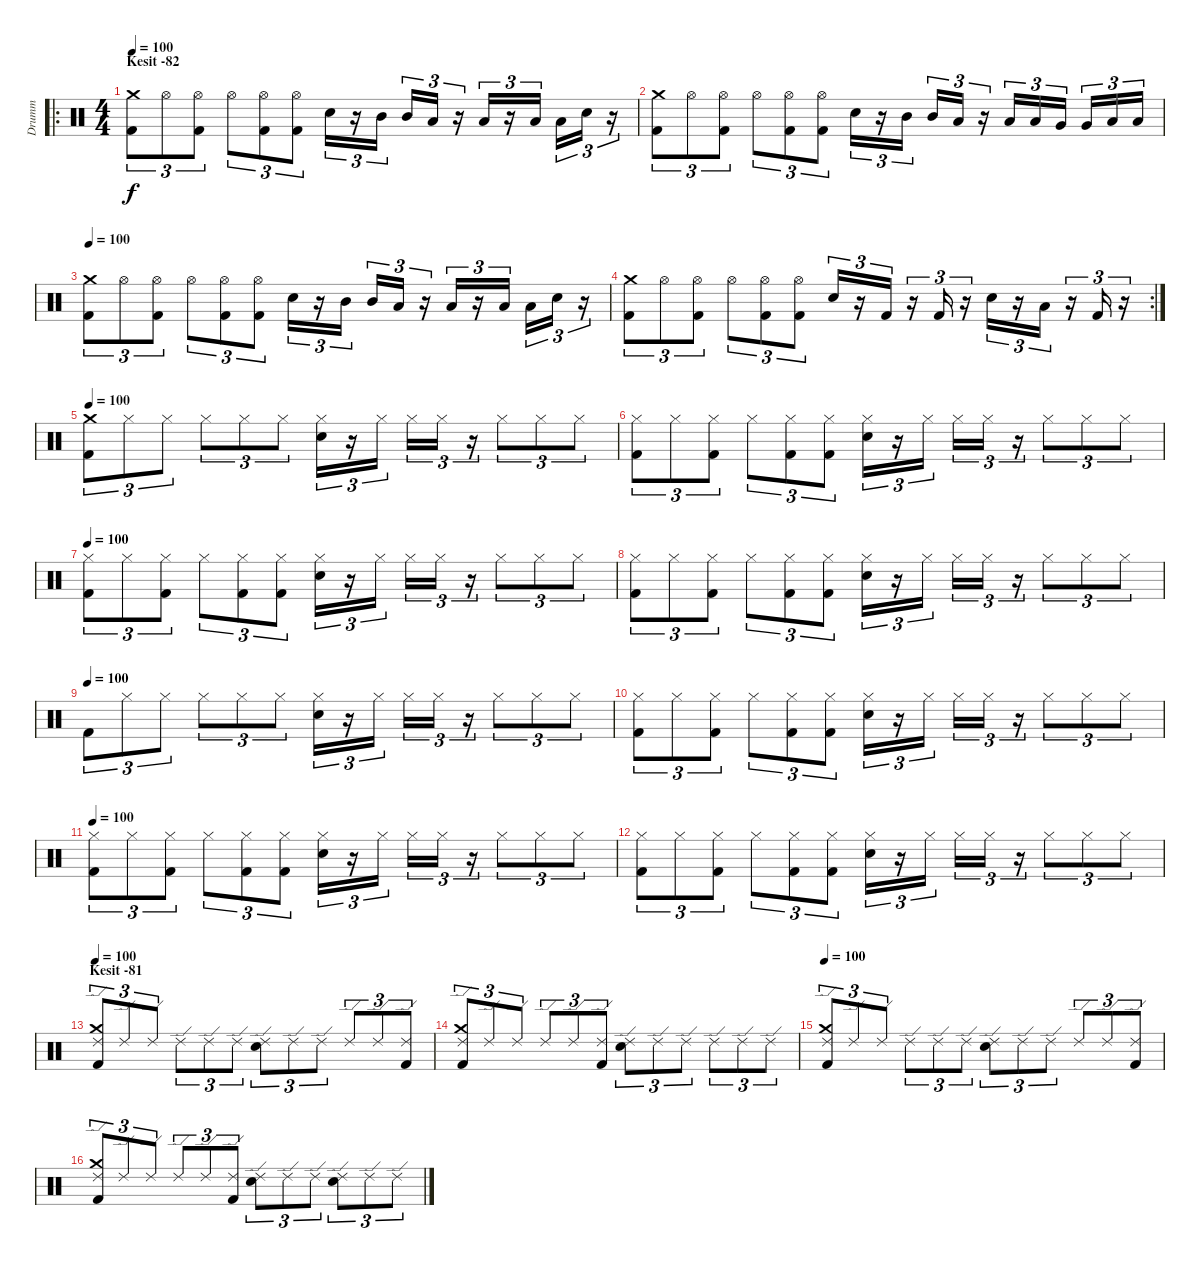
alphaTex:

\track ("Drumm" "Drumm") {instrument percussion}
\staff {score}
\articulation defaults
\ro
\ts (4 4)
\section ("" "Kesit -82")
\tempo 100
\clef neutral
\ks c
("Kick (hit) 2" "Crash medium (hit)").8{tu (3 2) dy f} "Hi-Hat (open)".8{tu (3 2)} ("Kick (hit) 2" "Hi-Hat (open)").8{tu (3 2)} "Hi-Hat (open)".8{tu (3 2)} ("Kick (hit) 2" "Hi-Hat (open)").8{tu (3 2)} ("Kick (hit) 2" "Hi-Hat (open)").8{tu (3 2)} "Electric Snare (hit)".16{tu (3 2)} r.16{tu (3 2)} "Mid Tom (hit)".16{tu (3 2)} "Mid Tom (hit)".16{tu (3 2)} "Low Tom (hit)".16{tu (3 2)} r.16{tu (3 2)} "Low Tom (hit)".16{tu (3 2)} r.16{tu (3 2)} "Low Tom (hit)".16{tu (3 2)} "Low Tom (hit)".16{tu (3 2)} "Electric Snare (hit)".16{tu (3 2)} r.16{tu (3 2)} |
("Kick (hit) 2" "Crash medium (hit)").8{tu (3 2)} "Hi-Hat (open)".8{tu (3 2)} ("Kick (hit) 2" "Hi-Hat (open)").8{tu (3 2)} "Hi-Hat (open)".8{tu (3 2)} ("Kick (hit) 2" "Hi-Hat (open)").8{tu (3 2)} ("Kick (hit) 2" "Hi-Hat (open)").8{tu (3 2)} "Electric Snare (hit)".16{tu (3 2)} r.16{tu (3 2)} "Mid Tom (hit)".16{tu (3 2)} "Mid Tom (hit)".16{tu (3 2)} "Low Tom (hit)".16{tu (3 2)} r.16{tu (3 2)} "Low Tom (hit)".16{tu (3 2)} "Low Tom (hit)".16{tu (3 2)} "Very Low Tom (hit)".16{tu (3 2)} "Very Low Tom (hit)".16{tu (3 2)} "Low Floor Tom (hit)".16{tu (3 2)} "Low Floor Tom (hit)".16{tu (3 2)} |
\tempo 100
("Kick (hit) 2" "Crash medium (hit)").8{tu (3 2)} "Hi-Hat (open)".8{tu (3 2)} ("Kick (hit) 2" "Hi-Hat (open)").8{tu (3 2)} "Hi-Hat (open)".8{tu (3 2)} ("Kick (hit) 2" "Hi-Hat (open)").8{tu (3 2)} ("Kick (hit) 2" "Hi-Hat (open)").8{tu (3 2)} "Electric Snare (hit)".16{tu (3 2)} r.16{tu (3 2)} "Mid Tom (hit)".16{tu (3 2)} "Mid Tom (hit)".16{tu (3 2)} "Low Tom (hit)".16{tu (3 2)} r.16{tu (3 2)} "Low Tom (hit)".16{tu (3 2)} r.16{tu (3 2)} "Low Tom (hit)".16{tu (3 2)} "Low Tom (hit)".16{tu (3 2)} "Electric Snare (hit)".16{tu (3 2)} r.16{tu (3 2)} |
\rc 2
("Kick (hit) 2" "Crash medium (hit)").8{tu (3 2)} "Hi-Hat (open)".8{tu (3 2)} ("Kick (hit) 2" "Hi-Hat (open)").8{tu (3 2)} "Hi-Hat (open)".8{tu (3 2)} ("Kick (hit) 2" "Hi-Hat (open)").8{tu (3 2)} ("Kick (hit) 2" "Hi-Hat (open)").8{tu (3 2)} "Electric Snare (hit)".16{tu (3 2)} r.16{tu (3 2)} "Kick (hit) 2".16{tu (3 2)} r.16{tu (3 2)} "Kick (hit) 2".16{tu (3 2)} r.16{tu (3 2)} "Electric Snare (hit)".16{tu (3 2)} r.16{tu (3 2)} "Low Tom (hit)".16{tu (3 2)} r.16{tu (3 2)} "Kick (hit) 2".16{tu (3 2)} r.16{tu (3 2)} |
\tempo 100
("Crash medium (hit)" "Kick (hit) 2").8{tu (3 2)} "Hi-Hat (closed)".8{tu (3 2)} "Hi-Hat (closed)".8{tu (3 2)} "Hi-Hat (closed)".8{tu (3 2)} "Hi-Hat (closed)".8{tu (3 2)} "Hi-Hat (closed)".8{tu (3 2)} ("Hi-Hat (closed)" "Electric Snare (hit)").16{tu (3 2)} r.16{tu (3 2)} "Hi-Hat (closed)".16{tu (3 2)} "Hi-Hat (closed)".16{tu (3 2)} "Hi-Hat (closed)".16{tu (3 2)} r.16{tu (3 2)} "Hi-Hat (closed)".8{tu (3 2)} "Hi-Hat (closed)".8{tu (3 2)} "Hi-Hat (closed)".8{tu (3 2)} |
("Hi-Hat (closed)" "Kick (hit) 2").8{tu (3 2)} "Hi-Hat (closed)".8{tu (3 2)} ("Hi-Hat (closed)" "Kick (hit) 2").8{tu (3 2)} "Hi-Hat (closed)".8{tu (3 2)} ("Hi-Hat (closed)" "Kick (hit) 2").8{tu (3 2)} ("Hi-Hat (closed)" "Kick (hit) 2").8{tu (3 2)} ("Hi-Hat (closed)" "Electric Snare (hit)").16{tu (3 2)} r.16{tu (3 2)} "Hi-Hat (closed)".16{tu (3 2)} "Hi-Hat (closed)".16{tu (3 2)} "Hi-Hat (closed)".16{tu (3 2)} r.16{tu (3 2)} "Hi-Hat (closed)".8{tu (3 2)} "Hi-Hat (closed)".8{tu (3 2)} "Hi-Hat (closed)".8{tu (3 2)} |
\tempo 100
("Hi-Hat (closed)" "Kick (hit) 2").8{tu (3 2)} "Hi-Hat (closed)".8{tu (3 2)} ("Hi-Hat (closed)" "Kick (hit) 2").8{tu (3 2)} "Hi-Hat (closed)".8{tu (3 2)} ("Hi-Hat (closed)" "Kick (hit) 2").8{tu (3 2)} ("Hi-Hat (closed)" "Kick (hit) 2").8{tu (3 2)} ("Hi-Hat (closed)" "Electric Snare (hit)").16{tu (3 2)} r.16{tu (3 2)} "Hi-Hat (closed)".16{tu (3 2)} "Hi-Hat (closed)".16{tu (3 2)} "Hi-Hat (closed)".16{tu (3 2)} r.16{tu (3 2)} "Hi-Hat (closed)".8{tu (3 2)} "Hi-Hat (closed)".8{tu (3 2)} "Hi-Hat (closed)".8{tu (3 2)} |
("Hi-Hat (closed)" "Kick (hit) 2").8{tu (3 2)} "Hi-Hat (closed)".8{tu (3 2)} ("Hi-Hat (closed)" "Kick (hit) 2").8{tu (3 2)} "Hi-Hat (closed)".8{tu (3 2)} ("Hi-Hat (closed)" "Kick (hit) 2").8{tu (3 2)} ("Hi-Hat (closed)" "Kick (hit) 2").8{tu (3 2)} ("Hi-Hat (closed)" "Electric Snare (hit)").16{tu (3 2)} r.16{tu (3 2)} "Hi-Hat (closed)".16{tu (3 2)} "Hi-Hat (closed)".16{tu (3 2)} "Hi-Hat (closed)".16{tu (3 2)} r.16{tu (3 2)} "Hi-Hat (closed)".8{tu (3 2)} "Hi-Hat (closed)".8{tu (3 2)} "Hi-Hat (closed)".8{tu (3 2)} |
\tempo (100)
"Kick (hit) 2".8{tu (3 2)} "Hi-Hat (closed)".8{tu (3 2)} "Hi-Hat (closed)".8{tu (3 2)} "Hi-Hat (closed)".8{tu (3 2)} "Hi-Hat (closed)".8{tu (3 2)} "Hi-Hat (closed)".8{tu (3 2)} ("Hi-Hat (closed)" "Electric Snare (hit)").16{tu (3 2)} r.16{tu (3 2)} "Hi-Hat (closed)".16{tu (3 2)} "Hi-Hat (closed)".16{tu (3 2)} "Hi-Hat (closed)".16{tu (3 2)} r.16{tu (3 2)} "Hi-Hat (closed)".8{tu (3 2)} "Hi-Hat (closed)".8{tu (3 2)} "Hi-Hat (closed)".8{tu (3 2)} |
("Hi-Hat (closed)" "Kick (hit) 2").8{tu (3 2)} "Hi-Hat (closed)".8{tu (3 2)} ("Hi-Hat (closed)" "Kick (hit) 2").8{tu (3 2)} "Hi-Hat (closed)".8{tu (3 2)} ("Hi-Hat (closed)" "Kick (hit) 2").8{tu (3 2)} ("Hi-Hat (closed)" "Kick (hit) 2").8{tu (3 2)} ("Hi-Hat (closed)" "Electric Snare (hit)").16{tu (3 2)} r.16{tu (3 2)} "Hi-Hat (closed)".16{tu (3 2)} "Hi-Hat (closed)".16{tu (3 2)} "Hi-Hat (closed)".16{tu (3 2)} r.16{tu (3 2)} "Hi-Hat (closed)".8{tu (3 2)} "Hi-Hat (closed)".8{tu (3 2)} "Hi-Hat (closed)".8{tu (3 2)} |
\tempo 100
("Hi-Hat (closed)" "Kick (hit) 2").8{tu (3 2)} "Hi-Hat (closed)".8{tu (3 2)} ("Hi-Hat (closed)" "Kick (hit) 2").8{tu (3 2)} "Hi-Hat (closed)".8{tu (3 2)} ("Hi-Hat (closed)" "Kick (hit) 2").8{tu (3 2)} ("Hi-Hat (closed)" "Kick (hit) 2").8{tu (3 2)} ("Hi-Hat (closed)" "Electric Snare (hit)").16{tu (3 2)} r.16{tu (3 2)} "Hi-Hat (closed)".16{tu (3 2)} "Hi-Hat (closed)".16{tu (3 2)} "Hi-Hat (closed)".16{tu (3 2)} r.16{tu (3 2)} "Hi-Hat (closed)".8{tu (3 2)} "Hi-Hat (closed)".8{tu (3 2)} "Hi-Hat (closed)".8{tu (3 2)} |
("Hi-Hat (closed)" "Kick (hit) 2").8{tu (3 2)} "Hi-Hat (closed)".8{tu (3 2)} ("Hi-Hat (closed)" "Kick (hit) 2").8{tu (3 2)} "Hi-Hat (closed)".8{tu (3 2)} ("Hi-Hat (closed)" "Kick (hit) 2").8{tu (3 2)} ("Hi-Hat (closed)" "Kick (hit) 2").8{tu (3 2)} ("Hi-Hat (closed)" "Electric Snare (hit)").16{tu (3 2)} r.16{tu (3 2)} "Hi-Hat (closed)".16{tu (3 2)} "Hi-Hat (closed)".16{tu (3 2)} "Hi-Hat (closed)".16{tu (3 2)} r.16{tu (3 2)} "Hi-Hat (closed)".8{tu (3 2)} "Hi-Hat (closed)".8{tu (3 2)} "Hi-Hat (closed)".8{tu (3 2)} |
\section ("" "Kesit -81")
\tempo 100
("Ride (edge) 2" "Crash medium (hit)" "Kick (hit) 2").8{tu (3 2)} "Ride (edge) 2".8{tu (3 2)} "Ride (edge) 2".8{tu (3 2)} "Ride (edge) 2".8{tu (3 2)} "Ride (edge) 2".8{tu (3 2)} "Ride (edge) 2".8{tu (3 2)} ("Ride (edge) 2" "Electric Snare (hit)").8{tu (3 2)} "Ride (edge) 2".8{tu (3 2)} "Ride (edge) 2".8{tu (3 2)} "Ride (edge) 2".8{tu (3 2)} "Ride (edge) 2".8{tu (3 2)} ("Ride (edge) 2" "Kick (hit) 2").8{tu (3 2)} |
("Ride (edge) 2" "Crash medium (hit)" "Kick (hit) 2").8{tu (3 2)} "Ride (edge) 2".8{tu (3 2)} "Ride (edge) 2".8{tu (3 2)} "Ride (edge) 2".8{tu (3 2)} "Ride (edge) 2".8{tu (3 2)} ("Ride (edge) 2" "Kick (hit) 2").8{tu (3 2)} ("Ride (edge) 2" "Electric Snare (hit)").8{tu (3 2)} "Ride (edge) 2".8{tu (3 2)} "Ride (edge) 2".8{tu (3 2)} "Ride (edge) 2".8{tu (3 2)} "Ride (edge) 2".8{tu (3 2)} "Ride (edge) 2".8{tu (3 2)} |
\tempo 100
("Ride (edge) 2" "Crash medium (hit)" "Kick (hit) 2").8{tu (3 2)} "Ride (edge) 2".8{tu (3 2)} "Ride (edge) 2".8{tu (3 2)} "Ride (edge) 2".8{tu (3 2)} "Ride (edge) 2".8{tu (3 2)} "Ride (edge) 2".8{tu (3 2)} ("Ride (edge) 2" "Electric Snare (hit)").8{tu (3 2)} "Ride (edge) 2".8{tu (3 2)} "Ride (edge) 2".8{tu (3 2)} "Ride (edge) 2".8{tu (3 2)} "Ride (edge) 2".8{tu (3 2)} ("Ride (edge) 2" "Kick (hit) 2").8{tu (3 2)} |
("Ride (edge) 2" "Crash medium (hit)" "Kick (hit) 2").8{tu (3 2)} "Ride (edge) 2".8{tu (3 2)} "Ride (edge) 2".8{tu (3 2)} "Ride (edge) 2".8{tu (3 2)} "Ride (edge) 2".8{tu (3 2)} ("Ride (edge) 2" "Kick (hit) 2").8{tu (3 2)} ("Ride (edge) 2" "Electric Snare (hit)").8{tu (3 2)} "Ride (edge) 2".8{tu (3 2)} "Ride (edge) 2".8{tu (3 2)} ("Ride (edge) 2" "Electric Snare (hit)").8{tu (3 2)} "Ride (edge) 2".8{tu (3 2)} "Ride (edge) 2".8{tu (3 2)}
